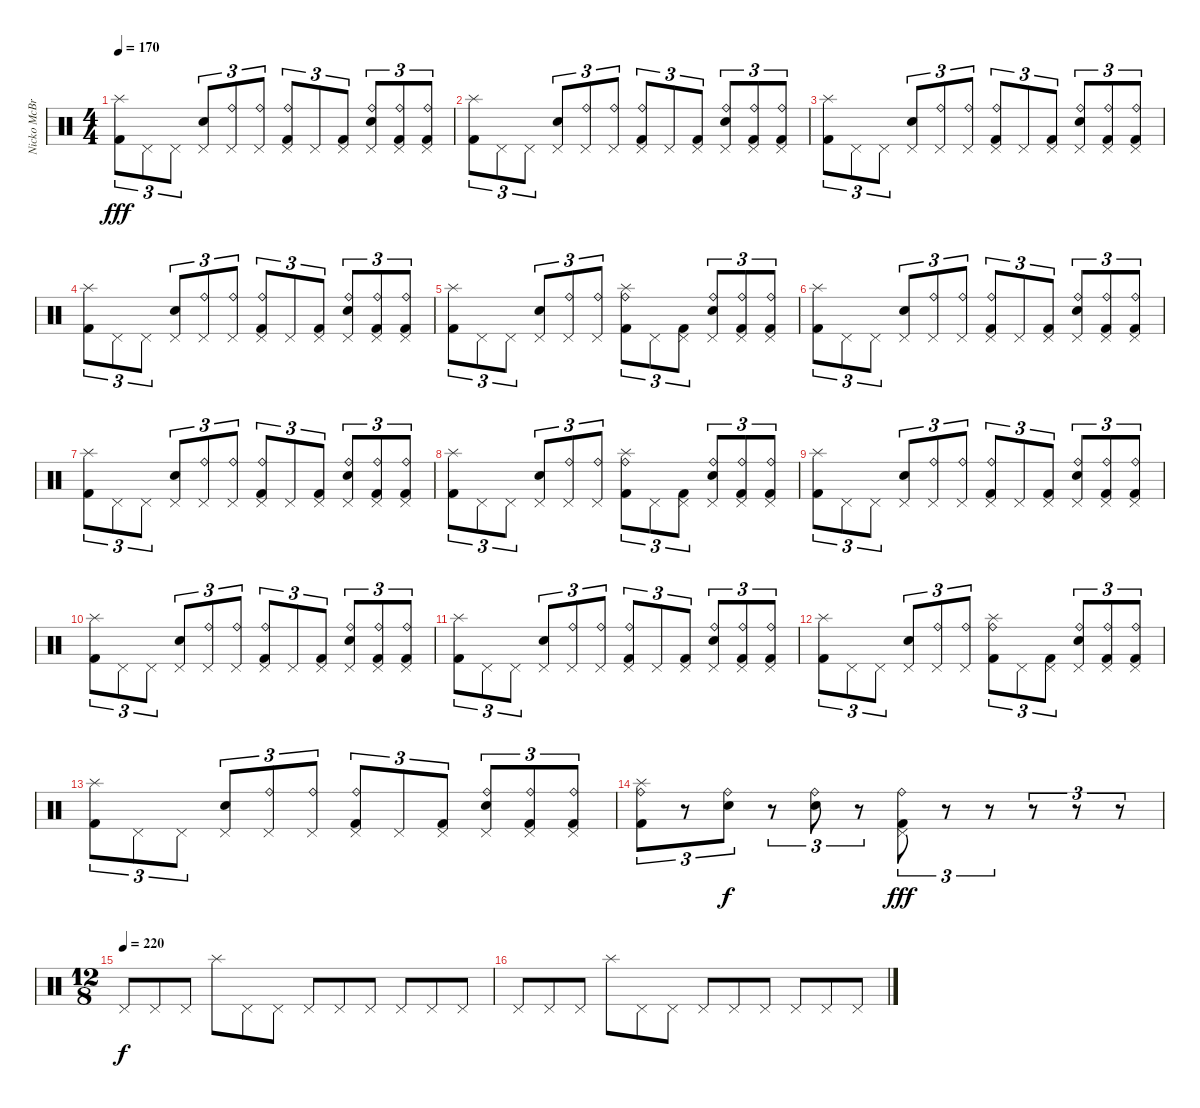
\track ("Nicko McBrian (Drums)" "Nicko McBr") {instrument percussion}
\staff {score}
\articulation defaults
\ts (4 4)
\tempo 170
\clef neutral
\ks c
("Splash (hit)" "Kick (hit) 2").8{tu (3 2) dy fff} "Pedal Hi-Hat (hit)".8{tu (3 2)} "Pedal Hi-Hat (hit)".8{tu (3 2)} ("Pedal Hi-Hat (hit)" "Snare (hit) 2").8{tu (3 2)} ("Pedal Hi-Hat (hit)" "Ride (bell)").8{tu (3 2)} ("Pedal Hi-Hat (hit)" "Ride (bell)").8{tu (3 2)} ("Pedal Hi-Hat (hit)" "Kick (hit) 2" "Ride (bell)").8{tu (3 2)} "Pedal Hi-Hat (hit)".8{tu (3 2)} ("Pedal Hi-Hat (hit)" "Kick (hit) 2").8{tu (3 2)} ("Pedal Hi-Hat (hit)" "Snare (hit) 2" "Ride (bell)").8{tu (3 2)} ("Pedal Hi-Hat (hit)" "Kick (hit) 2" "Ride (bell)").8{tu (3 2)} ("Pedal Hi-Hat (hit)" "Kick (hit) 2" "Ride (bell)").8{tu (3 2)} |
("Splash (hit)" "Kick (hit) 2").8{tu (3 2)} "Pedal Hi-Hat (hit)".8{tu (3 2)} "Pedal Hi-Hat (hit)".8{tu (3 2)} ("Pedal Hi-Hat (hit)" "Snare (hit) 2").8{tu (3 2)} ("Pedal Hi-Hat (hit)" "Ride (bell)").8{tu (3 2)} ("Pedal Hi-Hat (hit)" "Ride (bell)").8{tu (3 2)} ("Pedal Hi-Hat (hit)" "Kick (hit) 2" "Ride (bell)").8{tu (3 2)} "Pedal Hi-Hat (hit)".8{tu (3 2)} ("Pedal Hi-Hat (hit)" "Kick (hit) 2").8{tu (3 2)} ("Pedal Hi-Hat (hit)" "Snare (hit) 2" "Ride (bell)").8{tu (3 2)} ("Pedal Hi-Hat (hit)" "Kick (hit) 2" "Ride (bell)").8{tu (3 2)} ("Pedal Hi-Hat (hit)" "Kick (hit) 2" "Ride (bell)").8{tu (3 2)} |
("Splash (hit)" "Kick (hit) 2").8{tu (3 2)} "Pedal Hi-Hat (hit)".8{tu (3 2)} "Pedal Hi-Hat (hit)".8{tu (3 2)} ("Pedal Hi-Hat (hit)" "Snare (hit) 2").8{tu (3 2)} ("Pedal Hi-Hat (hit)" "Ride (bell)").8{tu (3 2)} ("Pedal Hi-Hat (hit)" "Ride (bell)").8{tu (3 2)} ("Pedal Hi-Hat (hit)" "Kick (hit) 2" "Ride (bell)").8{tu (3 2)} "Pedal Hi-Hat (hit)".8{tu (3 2)} ("Pedal Hi-Hat (hit)" "Kick (hit) 2").8{tu (3 2)} ("Pedal Hi-Hat (hit)" "Snare (hit) 2" "Ride (bell)").8{tu (3 2)} ("Pedal Hi-Hat (hit)" "Kick (hit) 2" "Ride (bell)").8{tu (3 2)} ("Pedal Hi-Hat (hit)" "Kick (hit) 2" "Ride (bell)").8{tu (3 2)} |
("Splash (hit)" "Kick (hit) 2").8{tu (3 2)} "Pedal Hi-Hat (hit)".8{tu (3 2)} "Pedal Hi-Hat (hit)".8{tu (3 2)} ("Pedal Hi-Hat (hit)" "Snare (hit) 2").8{tu (3 2)} ("Pedal Hi-Hat (hit)" "Ride (bell)").8{tu (3 2)} ("Pedal Hi-Hat (hit)" "Ride (bell)").8{tu (3 2)} ("Pedal Hi-Hat (hit)" "Kick (hit) 2" "Ride (bell)").8{tu (3 2)} "Pedal Hi-Hat (hit)".8{tu (3 2)} ("Pedal Hi-Hat (hit)" "Kick (hit) 2").8{tu (3 2)} ("Pedal Hi-Hat (hit)" "Snare (hit) 2" "Ride (bell)").8{tu (3 2)} ("Pedal Hi-Hat (hit)" "Kick (hit) 2" "Ride (bell)").8{tu (3 2)} ("Pedal Hi-Hat (hit)" "Kick (hit) 2" "Ride (bell)").8{tu (3 2)} |
("Splash (hit)" "Kick (hit) 2").8{tu (3 2)} "Pedal Hi-Hat (hit)".8{tu (3 2)} "Pedal Hi-Hat (hit)".8{tu (3 2)} ("Pedal Hi-Hat (hit)" "Snare (hit) 2").8{tu (3 2)} ("Pedal Hi-Hat (hit)" "Ride (bell)").8{tu (3 2)} ("Pedal Hi-Hat (hit)" "Ride (bell)").8{tu (3 2)} ("Splash (hit)" "Kick (hit) 2" "Ride (bell)").8{tu (3 2)} "Pedal Hi-Hat (hit)".8{tu (3 2)} ("Pedal Hi-Hat (hit)" "Kick (hit) 2").8{tu (3 2)} ("Pedal Hi-Hat (hit)" "Snare (hit) 2" "Ride (bell)").8{tu (3 2)} ("Pedal Hi-Hat (hit)" "Kick (hit) 2" "Ride (bell)").8{tu (3 2)} ("Pedal Hi-Hat (hit)" "Kick (hit) 2" "Ride (bell)").8{tu (3 2)} |
("Splash (hit)" "Kick (hit) 2").8{tu (3 2)} "Pedal Hi-Hat (hit)".8{tu (3 2)} "Pedal Hi-Hat (hit)".8{tu (3 2)} ("Pedal Hi-Hat (hit)" "Snare (hit) 2").8{tu (3 2)} ("Pedal Hi-Hat (hit)" "Ride (bell)").8{tu (3 2)} ("Pedal Hi-Hat (hit)" "Ride (bell)").8{tu (3 2)} ("Pedal Hi-Hat (hit)" "Kick (hit) 2" "Ride (bell)").8{tu (3 2)} "Pedal Hi-Hat (hit)".8{tu (3 2)} ("Pedal Hi-Hat (hit)" "Kick (hit) 2").8{tu (3 2)} ("Pedal Hi-Hat (hit)" "Snare (hit) 2" "Ride (bell)").8{tu (3 2)} ("Pedal Hi-Hat (hit)" "Kick (hit) 2" "Ride (bell)").8{tu (3 2)} ("Pedal Hi-Hat (hit)" "Kick (hit) 2" "Ride (bell)").8{tu (3 2)} |
("Splash (hit)" "Kick (hit) 2").8{tu (3 2)} "Pedal Hi-Hat (hit)".8{tu (3 2)} "Pedal Hi-Hat (hit)".8{tu (3 2)} ("Pedal Hi-Hat (hit)" "Snare (hit) 2").8{tu (3 2)} ("Pedal Hi-Hat (hit)" "Ride (bell)").8{tu (3 2)} ("Pedal Hi-Hat (hit)" "Ride (bell)").8{tu (3 2)} ("Pedal Hi-Hat (hit)" "Kick (hit) 2" "Ride (bell)").8{tu (3 2)} "Pedal Hi-Hat (hit)".8{tu (3 2)} ("Pedal Hi-Hat (hit)" "Kick (hit) 2").8{tu (3 2)} ("Pedal Hi-Hat (hit)" "Snare (hit) 2" "Ride (bell)").8{tu (3 2)} ("Pedal Hi-Hat (hit)" "Kick (hit) 2" "Ride (bell)").8{tu (3 2)} ("Pedal Hi-Hat (hit)" "Kick (hit) 2" "Ride (bell)").8{tu (3 2)} |
("Splash (hit)" "Kick (hit) 2").8{tu (3 2)} "Pedal Hi-Hat (hit)".8{tu (3 2)} "Pedal Hi-Hat (hit)".8{tu (3 2)} ("Pedal Hi-Hat (hit)" "Snare (hit) 2").8{tu (3 2)} ("Pedal Hi-Hat (hit)" "Ride (bell)").8{tu (3 2)} ("Pedal Hi-Hat (hit)" "Ride (bell)").8{tu (3 2)} ("Splash (hit)" "Kick (hit) 2" "Ride (bell)").8{tu (3 2)} "Pedal Hi-Hat (hit)".8{tu (3 2)} ("Pedal Hi-Hat (hit)" "Kick (hit) 2").8{tu (3 2)} ("Pedal Hi-Hat (hit)" "Snare (hit) 2" "Ride (bell)").8{tu (3 2)} ("Pedal Hi-Hat (hit)" "Kick (hit) 2" "Ride (bell)").8{tu (3 2)} ("Pedal Hi-Hat (hit)" "Kick (hit) 2" "Ride (bell)").8{tu (3 2)} |
("Splash (hit)" "Kick (hit) 2").8{tu (3 2)} "Pedal Hi-Hat (hit)".8{tu (3 2)} "Pedal Hi-Hat (hit)".8{tu (3 2)} ("Pedal Hi-Hat (hit)" "Snare (hit) 2").8{tu (3 2)} ("Pedal Hi-Hat (hit)" "Ride (bell)").8{tu (3 2)} ("Pedal Hi-Hat (hit)" "Ride (bell)").8{tu (3 2)} ("Pedal Hi-Hat (hit)" "Kick (hit) 2" "Ride (bell)").8{tu (3 2)} "Pedal Hi-Hat (hit)".8{tu (3 2)} ("Pedal Hi-Hat (hit)" "Kick (hit) 2").8{tu (3 2)} ("Pedal Hi-Hat (hit)" "Snare (hit) 2" "Ride (bell)").8{tu (3 2)} ("Pedal Hi-Hat (hit)" "Kick (hit) 2" "Ride (bell)").8{tu (3 2)} ("Pedal Hi-Hat (hit)" "Kick (hit) 2" "Ride (bell)").8{tu (3 2)} |
("Splash (hit)" "Kick (hit) 2").8{tu (3 2)} "Pedal Hi-Hat (hit)".8{tu (3 2)} "Pedal Hi-Hat (hit)".8{tu (3 2)} ("Pedal Hi-Hat (hit)" "Snare (hit) 2").8{tu (3 2)} ("Pedal Hi-Hat (hit)" "Ride (bell)").8{tu (3 2)} ("Pedal Hi-Hat (hit)" "Ride (bell)").8{tu (3 2)} ("Pedal Hi-Hat (hit)" "Kick (hit) 2" "Ride (bell)").8{tu (3 2)} "Pedal Hi-Hat (hit)".8{tu (3 2)} ("Pedal Hi-Hat (hit)" "Kick (hit) 2").8{tu (3 2)} ("Pedal Hi-Hat (hit)" "Snare (hit) 2" "Ride (bell)").8{tu (3 2)} ("Pedal Hi-Hat (hit)" "Kick (hit) 2" "Ride (bell)").8{tu (3 2)} ("Pedal Hi-Hat (hit)" "Kick (hit) 2" "Ride (bell)").8{tu (3 2)} |
("Splash (hit)" "Kick (hit) 2").8{tu (3 2)} "Pedal Hi-Hat (hit)".8{tu (3 2)} "Pedal Hi-Hat (hit)".8{tu (3 2)} ("Pedal Hi-Hat (hit)" "Snare (hit) 2").8{tu (3 2)} ("Pedal Hi-Hat (hit)" "Ride (bell)").8{tu (3 2)} ("Pedal Hi-Hat (hit)" "Ride (bell)").8{tu (3 2)} ("Pedal Hi-Hat (hit)" "Kick (hit) 2" "Ride (bell)").8{tu (3 2)} "Pedal Hi-Hat (hit)".8{tu (3 2)} ("Pedal Hi-Hat (hit)" "Kick (hit) 2").8{tu (3 2)} ("Pedal Hi-Hat (hit)" "Snare (hit) 2" "Ride (bell)").8{tu (3 2)} ("Pedal Hi-Hat (hit)" "Kick (hit) 2" "Ride (bell)").8{tu (3 2)} ("Pedal Hi-Hat (hit)" "Kick (hit) 2" "Ride (bell)").8{tu (3 2)} |
("Splash (hit)" "Kick (hit) 2").8{tu (3 2)} "Pedal Hi-Hat (hit)".8{tu (3 2)} "Pedal Hi-Hat (hit)".8{tu (3 2)} ("Pedal Hi-Hat (hit)" "Snare (hit) 2").8{tu (3 2)} ("Pedal Hi-Hat (hit)" "Ride (bell)").8{tu (3 2)} ("Pedal Hi-Hat (hit)" "Ride (bell)").8{tu (3 2)} ("Splash (hit)" "Kick (hit) 2" "Ride (bell)").8{tu (3 2)} "Pedal Hi-Hat (hit)".8{tu (3 2)} ("Pedal Hi-Hat (hit)" "Kick (hit) 2").8{tu (3 2)} ("Pedal Hi-Hat (hit)" "Snare (hit) 2" "Ride (bell)").8{tu (3 2)} ("Pedal Hi-Hat (hit)" "Kick (hit) 2" "Ride (bell)").8{tu (3 2)} ("Pedal Hi-Hat (hit)" "Kick (hit) 2" "Ride (bell)").8{tu (3 2)} |
("Splash (hit)" "Kick (hit) 2").8{tu (3 2)} "Pedal Hi-Hat (hit)".8{tu (3 2)} "Pedal Hi-Hat (hit)".8{tu (3 2)} ("Pedal Hi-Hat (hit)" "Snare (hit) 2").8{tu (3 2)} ("Pedal Hi-Hat (hit)" "Ride (bell)").8{tu (3 2)} ("Pedal Hi-Hat (hit)" "Ride (bell)").8{tu (3 2)} ("Pedal Hi-Hat (hit)" "Kick (hit) 2" "Ride (bell)").8{tu (3 2)} "Pedal Hi-Hat (hit)".8{tu (3 2)} ("Pedal Hi-Hat (hit)" "Kick (hit) 2").8{tu (3 2)} ("Pedal Hi-Hat (hit)" "Snare (hit) 2" "Ride (bell)").8{tu (3 2)} ("Pedal Hi-Hat (hit)" "Kick (hit) 2" "Ride (bell)").8{tu (3 2)} ("Pedal Hi-Hat (hit)" "Kick (hit) 2" "Ride (bell)").8{tu (3 2)} |
("Splash (hit)" "Kick (hit) 2" "Ride (bell)").8{tu (3 2)} r.8{tu (3 2)} ("Snare (hit) 2" "Ride (bell)").8{tu (3 2) dy f} r.8{tu (3 2)} ("Snare (hit) 2" "Ride (bell)").8{tu (3 2)} r.8{tu (3 2)} ("Pedal Hi-Hat (hit)" "Kick (hit) 2" "Ride (bell)").8{tu (3 2) dy fff} r.8{tu (3 2)} r.8{tu (3 2)} r.8{tu (3 2)} r.8{tu (3 2)} r.8{tu (3 2)} |
\ts (12 8)
\tempo (220)
"Pedal Hi-Hat (hit)".8{dy f} "Pedal Hi-Hat (hit)".8 "Pedal Hi-Hat (hit)".8 "Splash (hit)".8 "Pedal Hi-Hat (hit)".8 "Pedal Hi-Hat (hit)".8 "Pedal Hi-Hat (hit)".8 "Pedal Hi-Hat (hit)".8 "Pedal Hi-Hat (hit)".8 "Pedal Hi-Hat (hit)".8 "Pedal Hi-Hat (hit)".8 "Pedal Hi-Hat (hit)".8 |
"Pedal Hi-Hat (hit)".8 "Pedal Hi-Hat (hit)".8 "Pedal Hi-Hat (hit)".8 "Splash (hit)".8 "Pedal Hi-Hat (hit)".8 "Pedal Hi-Hat (hit)".8 "Pedal Hi-Hat (hit)".8 "Pedal Hi-Hat (hit)".8 "Pedal Hi-Hat (hit)".8 "Pedal Hi-Hat (hit)".8 "Pedal Hi-Hat (hit)".8 "Pedal Hi-Hat (hit)".8
